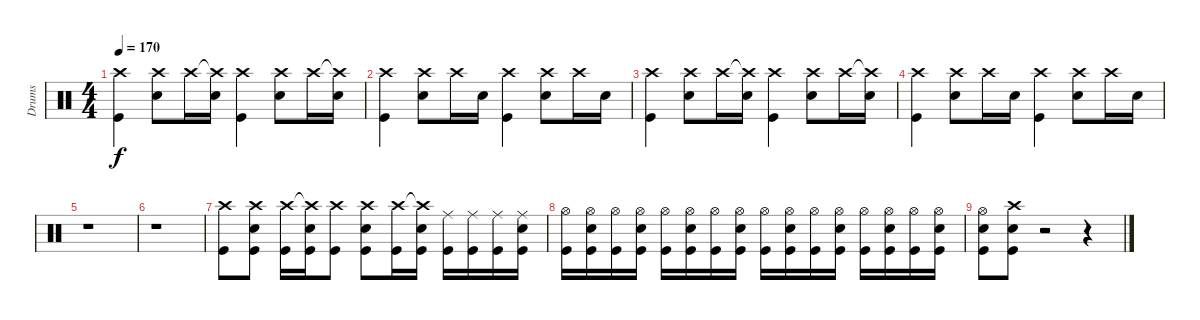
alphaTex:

\track ("Drums" "Drums") {instrument percussion}
\staff {score}
\articulation defaults
\ts (4 4)
\tempo 170
\clef neutral
\ks c
("Crash high (hit)" "Kick (hit)").4{dy f} ("Crash high (hit)" "Snare (hit) 2").8 "Crash high (hit)".16 ("Crash high (hit)"{t} "Snare (hit) 2").16 ("Crash high (hit)" "Kick (hit)").4 ("Crash high (hit)" "Snare (hit) 2").8 "Crash high (hit)".16 ("Crash high (hit)"{t} "Snare (hit) 2").16 |
("Crash high (hit)" "Kick (hit)").4 ("Crash high (hit)" "Snare (hit) 2").8 "Crash high (hit)".16 "Snare (hit) 2".16 ("Crash high (hit)" "Kick (hit)").4 ("Crash high (hit)" "Snare (hit) 2").8 "Crash high (hit)".16 "Snare (hit) 2".16 |
("Crash high (hit)" "Kick (hit)").4 ("Crash high (hit)" "Snare (hit) 2").8 "Crash high (hit)".16 ("Crash high (hit)"{t} "Snare (hit) 2").16 ("Crash high (hit)" "Kick (hit)").4 ("Crash high (hit)" "Snare (hit) 2").8 "Crash high (hit)".16 ("Crash high (hit)"{t} "Snare (hit) 2").16 |
("Crash high (hit)" "Kick (hit)").4 ("Crash high (hit)" "Snare (hit) 2").8 "Crash high (hit)".16 "Snare (hit) 2".16 ("Crash high (hit)" "Kick (hit)").4 ("Crash high (hit)" "Snare (hit) 2").8 "Crash high (hit)".16 "Snare (hit) 2".16 |
r.1 |
r.1 |
("Crash high (hit)" "Kick (hit)").8 ("Crash high (hit)" "Snare (hit) 2" "Kick (hit)").8 ("Crash high (hit)" "Kick (hit)").16 ("Crash high (hit)"{t} "Snare (hit) 2" "Kick (hit)").16 ("Crash high (hit)" "Kick (hit)").8 ("Crash high (hit)" "Snare (hit) 2" "Kick (hit)").8 ("Crash high (hit)" "Kick (hit)").16 ("Crash high (hit)"{t} "Snare (hit) 2" "Kick (hit)").16 ("Ride (middle)" "Kick (hit)").16 ("Ride (middle)" "Kick (hit)").16 ("Ride (middle)" "Kick (hit)").16 ("Ride (middle)" "Snare (hit) 2" "Kick (hit)").16 |
("Hi-Hat (open)" "Kick (hit)").16 ("Hi-Hat (open)" "Snare (hit) 2" "Kick (hit)").16 ("Hi-Hat (open)" "Kick (hit)").16 ("Hi-Hat (open)" "Snare (hit) 2" "Kick (hit)").16 ("Hi-Hat (open)" "Kick (hit)").16 ("Hi-Hat (open)" "Snare (hit) 2" "Kick (hit)").16 ("Hi-Hat (open)" "Kick (hit)").16 ("Hi-Hat (open)" "Snare (hit) 2" "Kick (hit)").16 ("Hi-Hat (open)" "Kick (hit)").16 ("Hi-Hat (open)" "Snare (hit) 2" "Kick (hit)").16 ("Hi-Hat (open)" "Kick (hit)").16 ("Hi-Hat (open)" "Snare (hit) 2" "Kick (hit)").16 ("Hi-Hat (open)" "Kick (hit)").16 ("Hi-Hat (open)" "Snare (hit) 2" "Kick (hit)").16 ("Hi-Hat (open)" "Kick (hit)").16 ("Hi-Hat (open)" "Snare (hit) 2" "Kick (hit)").16 |
("Hi-Hat (open)" "Snare (hit) 2" "Kick (hit)").8 ("Crash high (hit)" "Snare (hit) 2" "Kick (hit)").8 r.2 r.4
